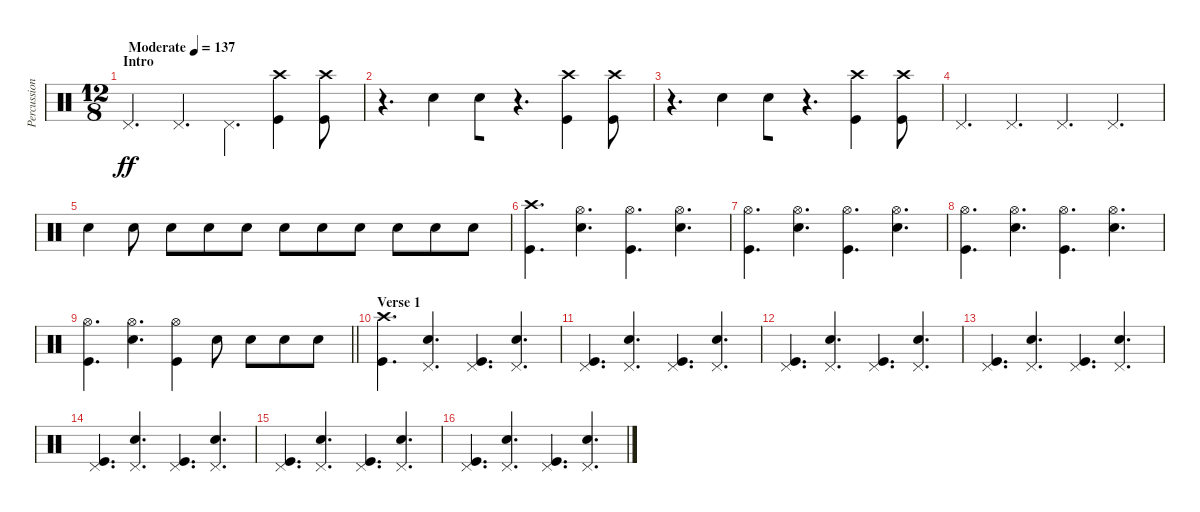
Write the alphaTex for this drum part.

\track ("Percussion" "Percussion") {instrument percussion bank 255}
\staff {score}
\articulation defaults
\ts (12 8)
\section ("" "Intro")
\tempo (137 "Moderate")
\clef neutral
\ks c "Pedal Hi-Hat (hit)".4{d dy ff} "Pedal Hi-Hat (hit)".4{d} "Pedal Hi-Hat (hit)".4{d beam merge}
("Kick (hit)" "Crash high (hit)").4 ("Kick (hit)" "Crash high (hit)").8 |
r.4{d} "Electric Snare (hit)".4 "Electric Snare (hit)".8{beam merge} r.4{d} ("Kick (hit)" "Crash high (hit)").4 ("Kick (hit)" "Crash high (hit)").8 |
r.4{d} "Electric Snare (hit)".4 "Electric Snare (hit)".8{beam merge} r.4{d} ("Kick (hit)" "Crash high (hit)").4 ("Kick (hit)" "Crash high (hit)").8 |
"Pedal Hi-Hat (hit)".4{d} "Pedal Hi-Hat (hit)".4{d} "Pedal Hi-Hat (hit)".4{d beam merge} "Pedal Hi-Hat (hit)".4{d} |
"Electric Snare (hit)".4 "Electric Snare (hit)".8 "Electric Snare (hit)".8 "Electric Snare (hit)".8 "Electric Snare (hit)".8 "Electric Snare (hit)".8{beam merge} "Electric Snare (hit)".8{beam merge} "Electric Snare (hit)".8 "Electric Snare (hit)".8 "Electric Snare (hit)".8 "Electric Snare (hit)".8 |
("Kick (hit)" "Crash high (hit)").4{d} ("Hi-Hat (open)" "Electric Snare (hit)").4{d} ("Hi-Hat (open)" "Kick (hit)").4{d} ("Hi-Hat (open)" "Electric Snare (hit)").4{d} |
("Kick (hit)" "Hi-Hat (open)").4{d} ("Hi-Hat (open)" "Electric Snare (hit)").4{d} ("Hi-Hat (open)" "Kick (hit)").4{d} ("Hi-Hat (open)" "Electric Snare (hit)").4{d} |
("Kick (hit)" "Hi-Hat (open)").4{d} ("Hi-Hat (open)" "Electric Snare (hit)").4{d} ("Hi-Hat (open)" "Kick (hit)").4{d} ("Hi-Hat (open)" "Electric Snare (hit)").4{d} |
\barLineRight lightlight
("Kick (hit)" "Hi-Hat (open)").4{d} ("Hi-Hat (open)" "Electric Snare (hit)").4{d} ("Hi-Hat (open)" "Kick (hit)").4 "Electric Snare (hit)".8 "Electric Snare (hit)".8 "Electric Snare (hit)".8 "Electric Snare (hit)".8 |
\section ("" "Verse 1")
("Kick (hit)" "Crash high (hit)").4{d} ("Pedal Hi-Hat (hit)" "Electric Snare (hit)").4{d} ("Pedal Hi-Hat (hit)" "Kick (hit)").4{d} ("Pedal Hi-Hat (hit)" "Electric Snare (hit)").4{d} |
("Kick (hit)" "Pedal Hi-Hat (hit)").4{d} ("Pedal Hi-Hat (hit)" "Electric Snare (hit)").4{d} ("Pedal Hi-Hat (hit)" "Kick (hit)").4{d} ("Pedal Hi-Hat (hit)" "Electric Snare (hit)").4{d} |
("Kick (hit)" "Pedal Hi-Hat (hit)").4{d} ("Pedal Hi-Hat (hit)" "Electric Snare (hit)").4{d} ("Pedal Hi-Hat (hit)" "Kick (hit)").4{d} ("Pedal Hi-Hat (hit)" "Electric Snare (hit)").4{d} |
("Kick (hit)" "Pedal Hi-Hat (hit)").4{d} ("Pedal Hi-Hat (hit)" "Electric Snare (hit)").4{d} ("Pedal Hi-Hat (hit)" "Kick (hit)").4{d} ("Pedal Hi-Hat (hit)" "Electric Snare (hit)").4{d} |
("Kick (hit)" "Pedal Hi-Hat (hit)").4{d} ("Pedal Hi-Hat (hit)" "Electric Snare (hit)").4{d} ("Pedal Hi-Hat (hit)" "Kick (hit)").4{d} ("Pedal Hi-Hat (hit)" "Electric Snare (hit)").4{d} |
("Kick (hit)" "Pedal Hi-Hat (hit)").4{d} ("Pedal Hi-Hat (hit)" "Electric Snare (hit)").4{d} ("Pedal Hi-Hat (hit)" "Kick (hit)").4{d} ("Pedal Hi-Hat (hit)" "Electric Snare (hit)").4{d} |
("Kick (hit)" "Pedal Hi-Hat (hit)").4{d} ("Pedal Hi-Hat (hit)" "Electric Snare (hit)").4{d} ("Pedal Hi-Hat (hit)" "Kick (hit)").4{d} ("Pedal Hi-Hat (hit)" "Electric Snare (hit)").4{d}
